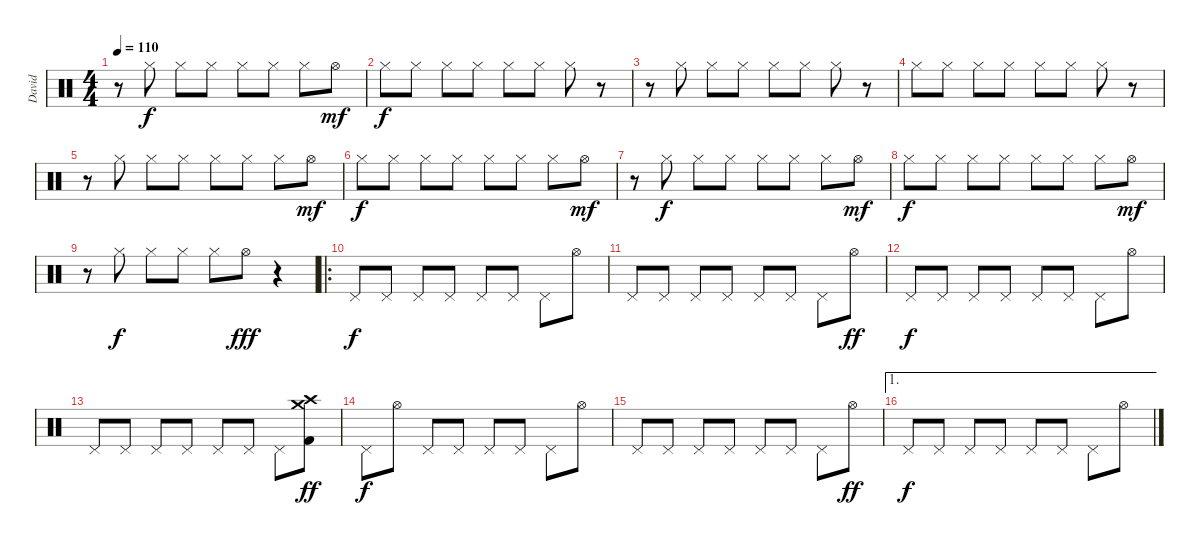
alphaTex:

\track ("David" "David") {instrument percussion}
\staff {score}
\articulation defaults
\ts (4 4)
\tempo 110
\clef neutral
\ks c
r.8{dy f} "Hi-Hat (closed)".8 "Hi-Hat (closed)".8 "Hi-Hat (closed)".8 "Hi-Hat (closed)".8 "Hi-Hat (closed)".8 "Hi-Hat (closed)".8 "Hi-Hat (open)".8{dy mf} |
"Hi-Hat (closed)".8{dy f} "Hi-Hat (closed)".8 "Hi-Hat (closed)".8 "Hi-Hat (closed)".8 "Hi-Hat (closed)".8 "Hi-Hat (closed)".8 "Hi-Hat (closed)".8 r.8 |
r.8 "Hi-Hat (closed)".8 "Hi-Hat (closed)".8 "Hi-Hat (closed)".8 "Hi-Hat (closed)".8 "Hi-Hat (closed)".8 "Hi-Hat (closed)".8 r.8 |
"Hi-Hat (closed)".8 "Hi-Hat (closed)".8 "Hi-Hat (closed)".8 "Hi-Hat (closed)".8 "Hi-Hat (closed)".8 "Hi-Hat (closed)".8 "Hi-Hat (closed)".8 r.8 |
r.8 "Hi-Hat (closed)".8 "Hi-Hat (closed)".8 "Hi-Hat (closed)".8 "Hi-Hat (closed)".8 "Hi-Hat (closed)".8 "Hi-Hat (closed)".8 "Hi-Hat (open)".8{dy mf} |
"Hi-Hat (closed)".8{dy f} "Hi-Hat (closed)".8 "Hi-Hat (closed)".8 "Hi-Hat (closed)".8 "Hi-Hat (closed)".8 "Hi-Hat (closed)".8 "Hi-Hat (closed)".8 "Hi-Hat (open)".8{dy mf} |
r.8 "Hi-Hat (closed)".8{dy f} "Hi-Hat (closed)".8 "Hi-Hat (closed)".8 "Hi-Hat (closed)".8 "Hi-Hat (closed)".8 "Hi-Hat (closed)".8 "Hi-Hat (open)".8{dy mf} |
"Hi-Hat (closed)".8{dy f} "Hi-Hat (closed)".8 "Hi-Hat (closed)".8 "Hi-Hat (closed)".8 "Hi-Hat (closed)".8 "Hi-Hat (closed)".8 "Hi-Hat (closed)".8 "Hi-Hat (open)".8{dy mf} |
r.8 "Hi-Hat (closed)".8{dy f} "Hi-Hat (closed)".8 "Hi-Hat (closed)".8 "Hi-Hat (closed)".8 "Hi-Hat (open)".8{dy fff} r.4 |
\ro "Pedal Hi-Hat (hit)".8{dy f} "Pedal Hi-Hat (hit)".8 "Pedal Hi-Hat (hit)".8 "Pedal Hi-Hat (hit)".8 "Pedal Hi-Hat (hit)".8 "Pedal Hi-Hat (hit)".8 "Pedal Hi-Hat (hit)".8 "Hi-Hat (open)".8
|
"Pedal Hi-Hat (hit)".8 "Pedal Hi-Hat (hit)".8 "Pedal Hi-Hat (hit)".8 "Pedal Hi-Hat (hit)".8 "Pedal Hi-Hat (hit)".8 "Pedal Hi-Hat (hit)".8 "Pedal Hi-Hat (hit)".8 "Hi-Hat (open)".8{dy ff} |
"Pedal Hi-Hat (hit)".8{dy f} "Pedal Hi-Hat (hit)".8 "Pedal Hi-Hat (hit)".8 "Pedal Hi-Hat (hit)".8 "Pedal Hi-Hat (hit)".8 "Pedal Hi-Hat (hit)".8 "Pedal Hi-Hat (hit)".8 "Hi-Hat (open)".8 |
"Pedal Hi-Hat (hit)".8 "Pedal Hi-Hat (hit)".8 "Pedal Hi-Hat (hit)".8 "Pedal Hi-Hat (hit)".8 "Pedal Hi-Hat (hit)".8 "Pedal Hi-Hat (hit)".8 "Pedal Hi-Hat (hit)".8 ("Crash high (hit)" "Crash medium (hit)" "Kick (hit) 2").8{dy ff} |
"Pedal Hi-Hat (hit)".8{dy f} "Hi-Hat (open)".8 "Pedal Hi-Hat (hit)".8 "Pedal Hi-Hat (hit)".8 "Pedal Hi-Hat (hit)".8 "Pedal Hi-Hat (hit)".8 "Pedal Hi-Hat (hit)".8 "Hi-Hat (open)".8 |
"Pedal Hi-Hat (hit)".8 "Pedal Hi-Hat (hit)".8 "Pedal Hi-Hat (hit)".8 "Pedal Hi-Hat (hit)".8 "Pedal Hi-Hat (hit)".8 "Pedal Hi-Hat (hit)".8 "Pedal Hi-Hat (hit)".8 "Hi-Hat (open)".8{dy ff} |
\ae 1 "Pedal Hi-Hat (hit)".8{dy f} "Pedal Hi-Hat (hit)".8 "Pedal Hi-Hat (hit)".8 "Pedal Hi-Hat (hit)".8 "Pedal Hi-Hat (hit)".8 "Pedal Hi-Hat (hit)".8 "Pedal Hi-Hat (hit)".8 "Hi-Hat (open)".8
